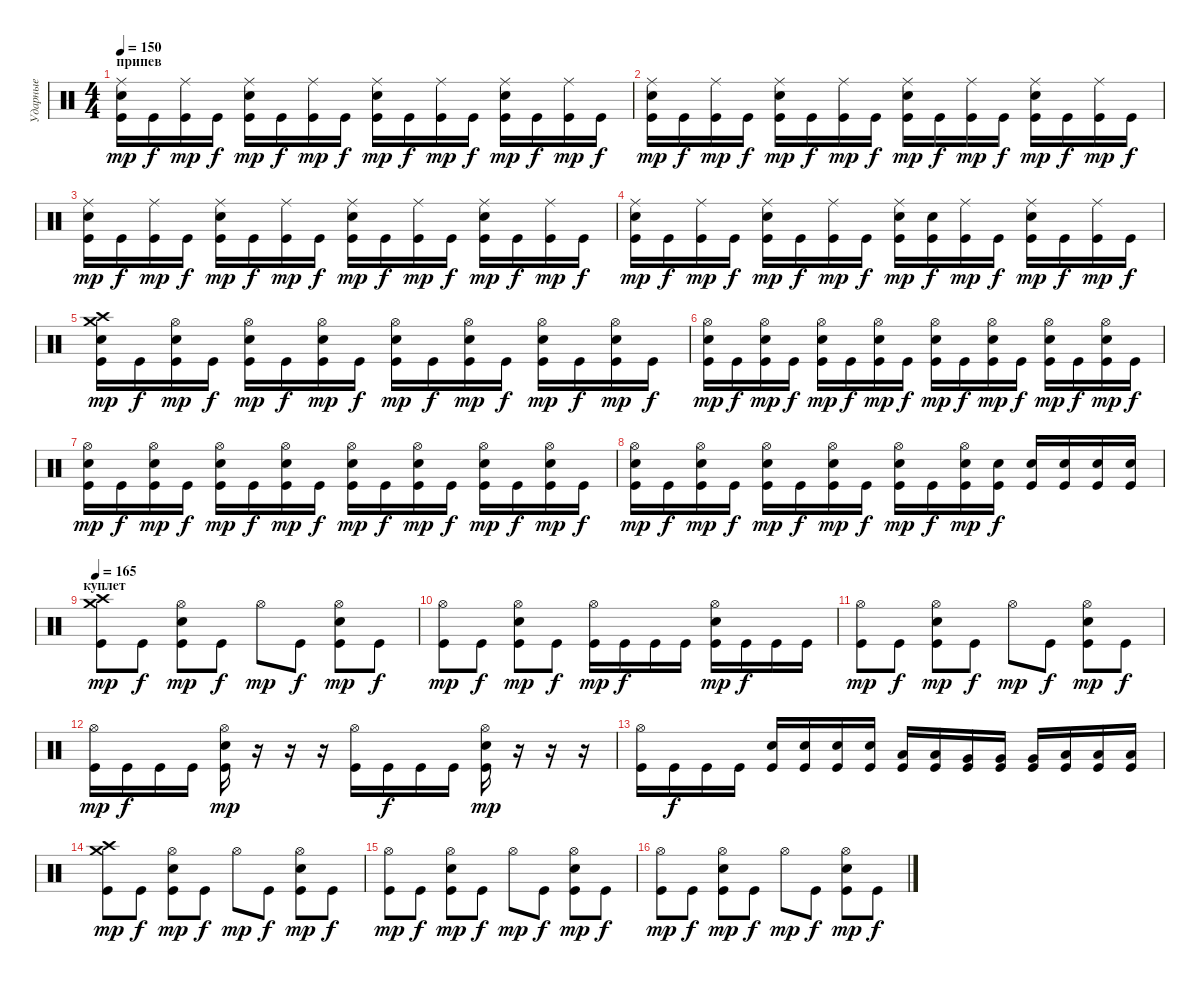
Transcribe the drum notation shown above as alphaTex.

\track ("Ударные" "Ударные") {instrument percussion}
\staff {score}
\articulation defaults
\ts (4 4)
\section ("" "припев")
\tempo 150
\clef neutral
\ks c
("Ride (middle)" "Electric Snare (hit)" "Kick (hit)").16{dy mp} "Kick (hit)".16{dy f} ("Ride (middle)" "Kick (hit)").16{dy mp} "Kick (hit)".16{dy f} ("Ride (middle)" "Electric Snare (hit)" "Kick (hit)").16{dy mp} "Kick (hit)".16{dy f} ("Ride (middle)" "Kick (hit)").16{dy mp} "Kick (hit)".16{dy f} ("Ride (middle)" "Electric Snare (hit)" "Kick (hit)").16{dy mp} "Kick (hit)".16{dy f} ("Ride (middle)" "Kick (hit)").16{dy mp} "Kick (hit)".16{dy f} ("Ride (middle)" "Electric Snare (hit)" "Kick (hit)").16{dy mp} "Kick (hit)".16{dy f} ("Ride (middle)" "Kick (hit)").16{dy mp} "Kick (hit)".16{dy f} |
("Ride (middle)" "Electric Snare (hit)" "Kick (hit)").16{dy mp} "Kick (hit)".16{dy f} ("Ride (middle)" "Kick (hit)").16{dy mp} "Kick (hit)".16{dy f} ("Ride (middle)" "Electric Snare (hit)" "Kick (hit)").16{dy mp} "Kick (hit)".16{dy f} ("Ride (middle)" "Kick (hit)").16{dy mp} "Kick (hit)".16{dy f} ("Ride (middle)" "Electric Snare (hit)" "Kick (hit)").16{dy mp} "Kick (hit)".16{dy f} ("Ride (middle)" "Kick (hit)").16{dy mp} "Kick (hit)".16{dy f} ("Ride (middle)" "Electric Snare (hit)" "Kick (hit)").16{dy mp} "Kick (hit)".16{dy f} ("Ride (middle)" "Kick (hit)").16{dy mp} "Kick (hit)".16{dy f} |
("Ride (middle)" "Electric Snare (hit)" "Kick (hit)").16{dy mp} "Kick (hit)".16{dy f} ("Ride (middle)" "Kick (hit)").16{dy mp} "Kick (hit)".16{dy f} ("Ride (middle)" "Electric Snare (hit)" "Kick (hit)").16{dy mp} "Kick (hit)".16{dy f} ("Ride (middle)" "Kick (hit)").16{dy mp} "Kick (hit)".16{dy f} ("Ride (middle)" "Electric Snare (hit)" "Kick (hit)").16{dy mp} "Kick (hit)".16{dy f} ("Ride (middle)" "Kick (hit)").16{dy mp} "Kick (hit)".16{dy f} ("Ride (middle)" "Electric Snare (hit)" "Kick (hit)").16{dy mp} "Kick (hit)".16{dy f} ("Ride (middle)" "Kick (hit)").16{dy mp} "Kick (hit)".16{dy f} |
("Ride (middle)" "Electric Snare (hit)" "Kick (hit)").16{dy mp} "Kick (hit)".16{dy f} ("Ride (middle)" "Kick (hit)").16{dy mp} "Kick (hit)".16{dy f} ("Ride (middle)" "Electric Snare (hit)" "Kick (hit)").16{dy mp} "Kick (hit)".16{dy f} ("Ride (middle)" "Kick (hit)").16{dy mp} "Kick (hit)".16{dy f} ("Ride (middle)" "Electric Snare (hit)" "Kick (hit)").16{dy mp} ("Electric Snare (hit)" "Kick (hit)").16{dy f} ("Ride (middle)" "Kick (hit)").16{dy mp} "Kick (hit)".16{dy f} ("Ride (middle)" "Electric Snare (hit)" "Kick (hit)").16{dy mp} "Kick (hit)".16{dy f} ("Ride (middle)" "Kick (hit)").16{dy mp} "Kick (hit)".16{dy f} |
("Crash medium (hit)" "Crash high (hit)" "Electric Snare (hit)" "Kick (hit)").16{dy mp} "Kick (hit)".16{dy f} ("Hi-Hat (open)" "Electric Snare (hit)" "Kick (hit)").16{dy mp} "Kick (hit)".16{dy f} ("Hi-Hat (open)" "Electric Snare (hit)" "Kick (hit)").16{dy mp} "Kick (hit)".16{dy f} ("Hi-Hat (open)" "Electric Snare (hit)" "Kick (hit)").16{dy mp} "Kick (hit)".16{dy f} ("Hi-Hat (open)" "Electric Snare (hit)" "Kick (hit)").16{dy mp} "Kick (hit)".16{dy f} ("Hi-Hat (open)" "Electric Snare (hit)" "Kick (hit)").16{dy mp} "Kick (hit)".16{dy f} ("Hi-Hat (open)" "Electric Snare (hit)" "Kick (hit)").16{dy mp} "Kick (hit)".16{dy f} ("Hi-Hat (open)" "Electric Snare (hit)" "Kick (hit)").16{dy mp} "Kick (hit)".16{dy f} |
("Hi-Hat (open)" "Electric Snare (hit)" "Kick (hit)").16{dy mp} "Kick (hit)".16{dy f} ("Hi-Hat (open)" "Electric Snare (hit)" "Kick (hit)").16{dy mp} "Kick (hit)".16{dy f} ("Hi-Hat (open)" "Electric Snare (hit)" "Kick (hit)").16{dy mp} "Kick (hit)".16{dy f} ("Hi-Hat (open)" "Electric Snare (hit)" "Kick (hit)").16{dy mp} "Kick (hit)".16{dy f} ("Hi-Hat (open)" "Electric Snare (hit)" "Kick (hit)").16{dy mp} "Kick (hit)".16{dy f} ("Hi-Hat (open)" "Electric Snare (hit)" "Kick (hit)").16{dy mp} "Kick (hit)".16{dy f} ("Hi-Hat (open)" "Electric Snare (hit)" "Kick (hit)").16{dy mp} "Kick (hit)".16{dy f} ("Hi-Hat (open)" "Electric Snare (hit)" "Kick (hit)").16{dy mp} "Kick (hit)".16{dy f} |
("Hi-Hat (open)" "Electric Snare (hit)" "Kick (hit)").16{dy mp} "Kick (hit)".16{dy f} ("Hi-Hat (open)" "Electric Snare (hit)" "Kick (hit)").16{dy mp} "Kick (hit)".16{dy f} ("Hi-Hat (open)" "Electric Snare (hit)" "Kick (hit)").16{dy mp} "Kick (hit)".16{dy f} ("Hi-Hat (open)" "Electric Snare (hit)" "Kick (hit)").16{dy mp} "Kick (hit)".16{dy f} ("Hi-Hat (open)" "Electric Snare (hit)" "Kick (hit)").16{dy mp} "Kick (hit)".16{dy f} ("Hi-Hat (open)" "Electric Snare (hit)" "Kick (hit)").16{dy mp} "Kick (hit)".16{dy f} ("Hi-Hat (open)" "Electric Snare (hit)" "Kick (hit)").16{dy mp} "Kick (hit)".16{dy f} ("Hi-Hat (open)" "Electric Snare (hit)" "Kick (hit)").16{dy mp} "Kick (hit)".16{dy f} |
("Hi-Hat (open)" "Electric Snare (hit)" "Kick (hit)").16{dy mp} "Kick (hit)".16{dy f} ("Hi-Hat (open)" "Electric Snare (hit)" "Kick (hit)").16{dy mp} "Kick (hit)".16{dy f} ("Hi-Hat (open)" "Electric Snare (hit)" "Kick (hit)").16{dy mp} "Kick (hit)".16{dy f} ("Hi-Hat (open)" "Electric Snare (hit)" "Kick (hit)").16{dy mp} "Kick (hit)".16{dy f} ("Hi-Hat (open)" "Electric Snare (hit)" "Kick (hit)").16{dy mp} "Kick (hit)".16{dy f} ("Hi-Hat (open)" "Electric Snare (hit)" "Kick (hit)").16{dy mp} ("Electric Snare (hit)" "Kick (hit)").16{dy f} ("Electric Snare (hit)" "Kick (hit)").16 ("Electric Snare (hit)" "Kick (hit)").16 ("Electric Snare (hit)" "Kick (hit)").16 ("Electric Snare (hit)" "Kick (hit)").16 |
\section ("" "куплет")
\tempo 165
("Crash medium (hit)" "Crash high (hit)" "Kick (hit)").8{dy mp} "Kick (hit)".8{dy f} ("Hi-Hat (open)" "Electric Snare (hit)" "Kick (hit)").8{dy mp} "Kick (hit)".8{dy f} "Hi-Hat (open)".8{dy mp} "Kick (hit)".8{dy f} ("Hi-Hat (open)" "Electric Snare (hit)" "Kick (hit)").8{dy mp} "Kick (hit)".8{dy f} |
("Hi-Hat (open)" "Kick (hit)").8{dy mp} "Kick (hit)".8{dy f} ("Hi-Hat (open)" "Electric Snare (hit)" "Kick (hit)").8{dy mp} "Kick (hit)".8{dy f} ("Hi-Hat (open)" "Kick (hit)").16{dy mp} "Kick (hit)".16{dy f} "Kick (hit)".16 "Kick (hit)".16 ("Hi-Hat (open)" "Electric Snare (hit)" "Kick (hit)").16{dy mp} "Kick (hit)".16{dy f} "Kick (hit)".16 "Kick (hit)".16 |
("Hi-Hat (open)" "Kick (hit)").8{dy mp} "Kick (hit)".8{dy f} ("Hi-Hat (open)" "Electric Snare (hit)" "Kick (hit)").8{dy mp} "Kick (hit)".8{dy f} "Hi-Hat (open)".8{dy mp} "Kick (hit)".8{dy f} ("Hi-Hat (open)" "Electric Snare (hit)" "Kick (hit)").8{dy mp} "Kick (hit)".8{dy f} |
("Hi-Hat (open)" "Kick (hit)").16{dy mp} "Kick (hit)".16{dy f} "Kick (hit)".16 "Kick (hit)".16 ("Hi-Hat (open)" "Electric Snare (hit)" "Kick (hit)").16{dy mp} r.16 r.16 r.16 ("Hi-Hat (open)" "Kick (hit)").16 "Kick (hit)".16{dy f} "Kick (hit)".16 "Kick (hit)".16 ("Hi-Hat (open)" "Electric Snare (hit)" "Kick (hit)").16{dy mp} r.16 r.16 r.16 |
("Hi-Hat (open)" "Kick (hit)").16 "Kick (hit)".16{dy f} "Kick (hit)".16 "Kick (hit)".16 ("Electric Snare (hit)" "Kick (hit)").16 ("Electric Snare (hit)" "Kick (hit)").16 ("Electric Snare (hit)" "Kick (hit)").16 ("Electric Snare (hit)" "Kick (hit)").16 ("Low Tom (hit)" "Kick (hit)").16 ("Low Tom (hit)" "Kick (hit)").16 ("Very Low Tom (hit)" "Kick (hit)").16 ("Very Low Tom (hit)" "Kick (hit)").16 ("Very Low Tom (hit)" "Kick (hit)").16 ("Low Floor Tom (hit)" "Kick (hit)").16 ("Low Floor Tom (hit)" "Kick (hit)").16 ("Low Floor Tom (hit)" "Kick (hit)").16 |
("Crash medium (hit)" "Crash high (hit)" "Kick (hit)").8{dy mp} "Kick (hit)".8{dy f} ("Hi-Hat (open)" "Electric Snare (hit)" "Kick (hit)").8{dy mp} "Kick (hit)".8{dy f} "Hi-Hat (open)".8{dy mp} "Kick (hit)".8{dy f} ("Hi-Hat (open)" "Electric Snare (hit)" "Kick (hit)").8{dy mp} "Kick (hit)".8{dy f} |
("Hi-Hat (open)" "Kick (hit)").8{dy mp} "Kick (hit)".8{dy f} ("Hi-Hat (open)" "Electric Snare (hit)" "Kick (hit)").8{dy mp} "Kick (hit)".8{dy f} "Hi-Hat (open)".8{dy mp} "Kick (hit)".8{dy f} ("Hi-Hat (open)" "Electric Snare (hit)" "Kick (hit)").8{dy mp} "Kick (hit)".8{dy f} |
("Hi-Hat (open)" "Kick (hit)").8{dy mp} "Kick (hit)".8{dy f} ("Hi-Hat (open)" "Electric Snare (hit)" "Kick (hit)").8{dy mp} "Kick (hit)".8{dy f} "Hi-Hat (open)".8{dy mp} "Kick (hit)".8{dy f} ("Hi-Hat (open)" "Electric Snare (hit)" "Kick (hit)").8{dy mp} "Kick (hit)".8{dy f}
